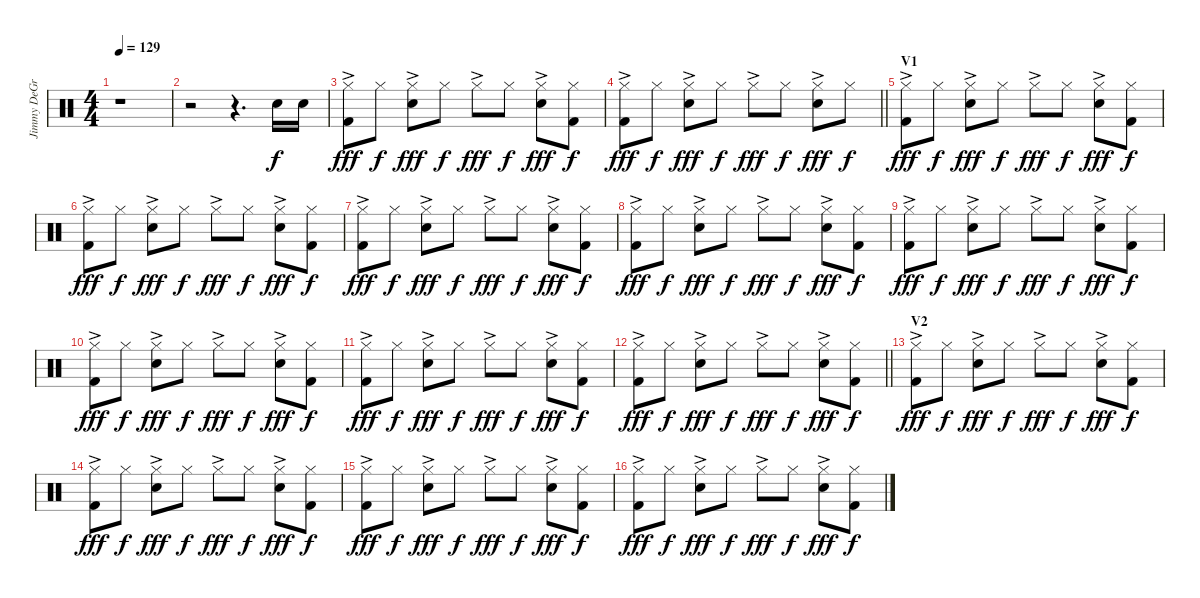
\track ("Jimmy DeGrasso (Drums)" "Jimmy DeGr") {instrument percussion}
\staff {score}
\articulation defaults
\ts (4 4)
\tempo 129
\clef neutral
\ks c
r.1{dy f} |
r.2 r.4{d} "Electric Snare (hit)".16 "Electric Snare (hit)".16 |
("Hi-Hat (closed)"{ac} "Kick (hit) 2").8{dy fff} "Hi-Hat (closed)".8{dy f} ("Hi-Hat (closed)"{ac} "Electric Snare (hit)").8{dy fff} "Hi-Hat (closed)".8{dy f} "Hi-Hat (closed)"{ac}.8{dy fff} "Hi-Hat (closed)".8{dy f} ("Hi-Hat (closed)"{ac} "Electric Snare (hit)").8{dy fff} ("Hi-Hat (closed)" "Kick (hit) 2").8{dy f} |
\barLineRight lightlight
("Hi-Hat (closed)"{ac} "Kick (hit) 2").8{dy fff} "Hi-Hat (closed)".8{dy f} ("Hi-Hat (closed)"{ac} "Electric Snare (hit)").8{dy fff} "Hi-Hat (closed)".8{dy f} "Hi-Hat (closed)"{ac}.8{dy fff} "Hi-Hat (closed)".8{dy f} ("Hi-Hat (closed)"{ac} "Electric Snare (hit)").8{dy fff} "Hi-Hat (closed)".8{dy f} |
\section ("" "V1")
("Hi-Hat (closed)"{ac} "Kick (hit) 2").8{dy fff} "Hi-Hat (closed)".8{dy f} ("Hi-Hat (closed)"{ac} "Electric Snare (hit)").8{dy fff} "Hi-Hat (closed)".8{dy f} "Hi-Hat (closed)"{ac}.8{dy fff} "Hi-Hat (closed)".8{dy f} ("Hi-Hat (closed)"{ac} "Electric Snare (hit)").8{dy fff} ("Hi-Hat (closed)" "Kick (hit) 2").8{dy f} |
("Hi-Hat (closed)"{ac} "Kick (hit) 2").8{dy fff} "Hi-Hat (closed)".8{dy f} ("Hi-Hat (closed)"{ac} "Electric Snare (hit)").8{dy fff} "Hi-Hat (closed)".8{dy f} "Hi-Hat (closed)"{ac}.8{dy fff} "Hi-Hat (closed)".8{dy f} ("Hi-Hat (closed)"{ac} "Electric Snare (hit)").8{dy fff} ("Hi-Hat (closed)" "Kick (hit) 2").8{dy f} |
("Hi-Hat (closed)"{ac} "Kick (hit) 2").8{dy fff} "Hi-Hat (closed)".8{dy f} ("Hi-Hat (closed)"{ac} "Electric Snare (hit)").8{dy fff} "Hi-Hat (closed)".8{dy f} "Hi-Hat (closed)"{ac}.8{dy fff} "Hi-Hat (closed)".8{dy f} ("Hi-Hat (closed)"{ac} "Electric Snare (hit)").8{dy fff} ("Hi-Hat (closed)" "Kick (hit) 2").8{dy f} |
("Hi-Hat (closed)"{ac} "Kick (hit) 2").8{dy fff} "Hi-Hat (closed)".8{dy f} ("Hi-Hat (closed)"{ac} "Electric Snare (hit)").8{dy fff} "Hi-Hat (closed)".8{dy f} "Hi-Hat (closed)"{ac}.8{dy fff} "Hi-Hat (closed)".8{dy f} ("Hi-Hat (closed)"{ac} "Electric Snare (hit)").8{dy fff} ("Hi-Hat (closed)" "Kick (hit) 2").8{dy f} |
("Hi-Hat (closed)"{ac} "Kick (hit) 2").8{dy fff} "Hi-Hat (closed)".8{dy f} ("Hi-Hat (closed)"{ac} "Electric Snare (hit)").8{dy fff} "Hi-Hat (closed)".8{dy f} "Hi-Hat (closed)"{ac}.8{dy fff} "Hi-Hat (closed)".8{dy f} ("Hi-Hat (closed)"{ac} "Electric Snare (hit)").8{dy fff} ("Hi-Hat (closed)" "Kick (hit) 2").8{dy f} |
("Hi-Hat (closed)"{ac} "Kick (hit) 2").8{dy fff} "Hi-Hat (closed)".8{dy f} ("Hi-Hat (closed)"{ac} "Electric Snare (hit)").8{dy fff} "Hi-Hat (closed)".8{dy f} "Hi-Hat (closed)"{ac}.8{dy fff} "Hi-Hat (closed)".8{dy f} ("Hi-Hat (closed)"{ac} "Electric Snare (hit)").8{dy fff} ("Hi-Hat (closed)" "Kick (hit) 2").8{dy f} |
("Hi-Hat (closed)"{ac} "Kick (hit) 2").8{dy fff} "Hi-Hat (closed)".8{dy f} ("Hi-Hat (closed)"{ac} "Electric Snare (hit)").8{dy fff} "Hi-Hat (closed)".8{dy f} "Hi-Hat (closed)"{ac}.8{dy fff} "Hi-Hat (closed)".8{dy f} ("Hi-Hat (closed)"{ac} "Electric Snare (hit)").8{dy fff} ("Hi-Hat (closed)" "Kick (hit) 2").8{dy f} |
\barLineRight lightlight
("Hi-Hat (closed)"{ac} "Kick (hit) 2").8{dy fff} "Hi-Hat (closed)".8{dy f} ("Hi-Hat (closed)"{ac} "Electric Snare (hit)").8{dy fff} "Hi-Hat (closed)".8{dy f} "Hi-Hat (closed)"{ac}.8{dy fff} "Hi-Hat (closed)".8{dy f} ("Hi-Hat (closed)"{ac} "Electric Snare (hit)").8{dy fff} ("Hi-Hat (closed)" "Kick (hit) 2").8{dy f} |
\section ("" "V2")
("Hi-Hat (closed)"{ac} "Kick (hit) 2").8{dy fff} "Hi-Hat (closed)".8{dy f} ("Hi-Hat (closed)"{ac} "Electric Snare (hit)").8{dy fff} "Hi-Hat (closed)".8{dy f} "Hi-Hat (closed)"{ac}.8{dy fff} "Hi-Hat (closed)".8{dy f} ("Hi-Hat (closed)"{ac} "Electric Snare (hit)").8{dy fff} ("Hi-Hat (closed)" "Kick (hit) 2").8{dy f} |
("Hi-Hat (closed)"{ac} "Kick (hit) 2").8{dy fff} "Hi-Hat (closed)".8{dy f} ("Hi-Hat (closed)"{ac} "Electric Snare (hit)").8{dy fff} "Hi-Hat (closed)".8{dy f} "Hi-Hat (closed)"{ac}.8{dy fff} "Hi-Hat (closed)".8{dy f} ("Hi-Hat (closed)"{ac} "Electric Snare (hit)").8{dy fff} ("Hi-Hat (closed)" "Kick (hit) 2").8{dy f} |
("Hi-Hat (closed)"{ac} "Kick (hit) 2").8{dy fff} "Hi-Hat (closed)".8{dy f} ("Hi-Hat (closed)"{ac} "Electric Snare (hit)").8{dy fff} "Hi-Hat (closed)".8{dy f} "Hi-Hat (closed)"{ac}.8{dy fff} "Hi-Hat (closed)".8{dy f} ("Hi-Hat (closed)"{ac} "Electric Snare (hit)").8{dy fff} ("Hi-Hat (closed)" "Kick (hit) 2").8{dy f} |
("Hi-Hat (closed)"{ac} "Kick (hit) 2").8{dy fff} "Hi-Hat (closed)".8{dy f} ("Hi-Hat (closed)"{ac} "Electric Snare (hit)").8{dy fff} "Hi-Hat (closed)".8{dy f} "Hi-Hat (closed)"{ac}.8{dy fff} "Hi-Hat (closed)".8{dy f} ("Hi-Hat (closed)"{ac} "Electric Snare (hit)").8{dy fff} ("Hi-Hat (closed)" "Kick (hit) 2").8{dy f}
